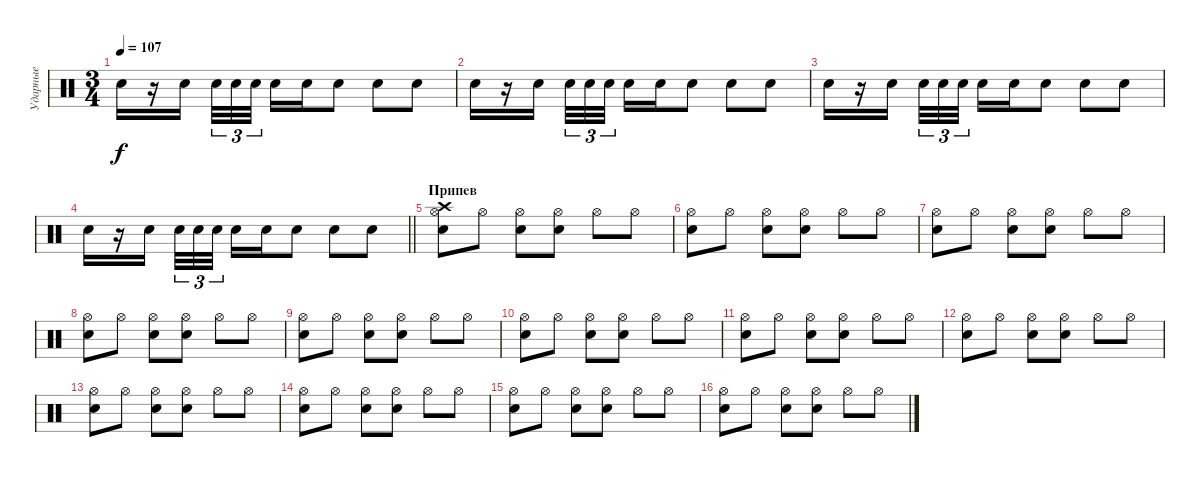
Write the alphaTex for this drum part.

\track ("Ударные" "Ударные") {instrument percussion}
\staff {score}
\articulation defaults
\ts (3 4)
\tempo 107
\clef neutral
\ks c "Snare (hit) 2".16{dy f}
r.16 "Snare (hit) 2".16{beam splitsecondary} "Snare (hit) 2".32{tu (3 2)} "Snare (hit) 2".32{tu (3 2)} "Snare (hit) 2".32{tu (3 2)} "Snare (hit) 2".16 "Snare (hit) 2".16 "Snare (hit) 2".8 "Snare (hit) 2".8 "Snare (hit) 2".8 |
"Snare (hit) 2".16 r.16 "Snare (hit) 2".16{beam splitsecondary} "Snare (hit) 2".32{tu (3 2)} "Snare (hit) 2".32{tu (3 2)} "Snare (hit) 2".32{tu (3 2)} "Snare (hit) 2".16 "Snare (hit) 2".16 "Snare (hit) 2".8 "Snare (hit) 2".8 "Snare (hit) 2".8 |
"Snare (hit) 2".16 r.16 "Snare (hit) 2".16{beam splitsecondary} "Snare (hit) 2".32{tu (3 2)} "Snare (hit) 2".32{tu (3 2)} "Snare (hit) 2".32{tu (3 2)} "Snare (hit) 2".16 "Snare (hit) 2".16 "Snare (hit) 2".8 "Snare (hit) 2".8 "Snare (hit) 2".8 |
\barLineRight lightlight "Snare (hit) 2".16
r.16 "Snare (hit) 2".16{beam splitsecondary} "Snare (hit) 2".32{tu (3 2)} "Snare (hit) 2".32{tu (3 2)} "Snare (hit) 2".32{tu (3 2)} "Snare (hit) 2".16 "Snare (hit) 2".16 "Snare (hit) 2".8 "Snare (hit) 2".8 "Snare (hit) 2".8 |
\section ("" "Припев")
("Hi-Hat (open)" "Crash high (hit)" "Snare (hit) 2").8 "Hi-Hat (open)".8 ("Hi-Hat (open)" "Snare (hit) 2").8 ("Hi-Hat (open)" "Snare (hit) 2").8 "Hi-Hat (open)".8 "Hi-Hat (open)".8 |
("Hi-Hat (open)" "Snare (hit) 2").8 "Hi-Hat (open)".8 ("Hi-Hat (open)" "Snare (hit) 2").8 ("Hi-Hat (open)" "Snare (hit) 2").8 "Hi-Hat (open)".8 "Hi-Hat (open)".8 |
("Hi-Hat (open)" "Snare (hit) 2").8 "Hi-Hat (open)".8 ("Hi-Hat (open)" "Snare (hit) 2").8 ("Hi-Hat (open)" "Snare (hit) 2").8 "Hi-Hat (open)".8 "Hi-Hat (open)".8 |
("Hi-Hat (open)" "Snare (hit) 2").8 "Hi-Hat (open)".8 ("Hi-Hat (open)" "Snare (hit) 2").8 ("Hi-Hat (open)" "Snare (hit) 2").8 "Hi-Hat (open)".8 "Hi-Hat (open)".8 |
("Hi-Hat (open)" "Snare (hit) 2").8 "Hi-Hat (open)".8 ("Hi-Hat (open)" "Snare (hit) 2").8 ("Hi-Hat (open)" "Snare (hit) 2").8 "Hi-Hat (open)".8 "Hi-Hat (open)".8 |
("Hi-Hat (open)" "Snare (hit) 2").8 "Hi-Hat (open)".8 ("Hi-Hat (open)" "Snare (hit) 2").8 ("Hi-Hat (open)" "Snare (hit) 2").8 "Hi-Hat (open)".8 "Hi-Hat (open)".8 |
("Hi-Hat (open)" "Snare (hit) 2").8 "Hi-Hat (open)".8 ("Hi-Hat (open)" "Snare (hit) 2").8 ("Hi-Hat (open)" "Snare (hit) 2").8 "Hi-Hat (open)".8 "Hi-Hat (open)".8 |
("Hi-Hat (open)" "Snare (hit) 2").8 "Hi-Hat (open)".8 ("Hi-Hat (open)" "Snare (hit) 2").8 ("Hi-Hat (open)" "Snare (hit) 2").8 "Hi-Hat (open)".8 "Hi-Hat (open)".8 |
("Hi-Hat (open)" "Snare (hit) 2").8 "Hi-Hat (open)".8 ("Hi-Hat (open)" "Snare (hit) 2").8 ("Hi-Hat (open)" "Snare (hit) 2").8 "Hi-Hat (open)".8 "Hi-Hat (open)".8 |
("Hi-Hat (open)" "Snare (hit) 2").8 "Hi-Hat (open)".8 ("Hi-Hat (open)" "Snare (hit) 2").8 ("Hi-Hat (open)" "Snare (hit) 2").8 "Hi-Hat (open)".8 "Hi-Hat (open)".8 |
("Hi-Hat (open)" "Snare (hit) 2").8 "Hi-Hat (open)".8 ("Hi-Hat (open)" "Snare (hit) 2").8 ("Hi-Hat (open)" "Snare (hit) 2").8 "Hi-Hat (open)".8 "Hi-Hat (open)".8 |
("Hi-Hat (open)" "Snare (hit) 2").8 "Hi-Hat (open)".8 ("Hi-Hat (open)" "Snare (hit) 2").8 ("Hi-Hat (open)" "Snare (hit) 2").8 "Hi-Hat (open)".8 "Hi-Hat (open)".8
